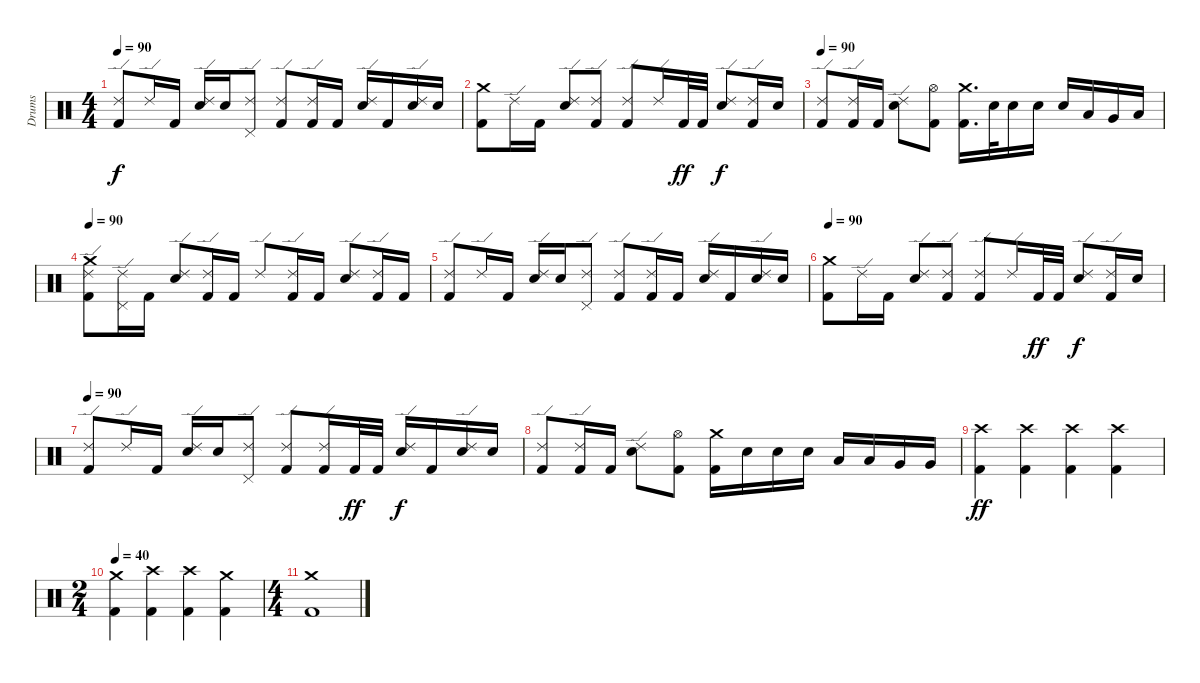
\track ("Drums" "Drums") {instrument percussion}
\staff {score}
\articulation defaults
\ts (4 4)
\tempo 90
\clef neutral
\ks c
("Kick (hit) 2" "Ride (edge) 2").8{dy f} "Ride (edge) 2".16 "Kick (hit) 2".16 ("Electric Snare (hit)" "Ride (edge) 2").16 "Electric Snare (hit)".16 ("Ride (edge) 2" "Pedal Hi-Hat (hit)").8 ("Kick (hit) 2" "Ride (edge) 2").8 ("Kick (hit) 2" "Ride (edge) 2").16 "Kick (hit) 2".16 ("Electric Snare (hit)" "Ride (edge) 2").16 "Kick (hit) 2".16 ("Electric Snare (hit)" "Ride (edge) 2").16 "Electric Snare (hit)".16 |
("Kick (hit) 2" "Crash medium (hit)").8 "Ride (edge) 2".16 "Kick (hit) 2".16 ("Electric Snare (hit)" "Ride (edge) 2").8 ("Kick (hit) 2" "Ride (edge) 2").8 ("Kick (hit) 2" "Ride (edge) 2").8 "Ride (edge) 2".16 "Kick (hit) 2".32{dy ff} "Kick (hit) 2".32 ("Electric Snare (hit)" "Ride (edge) 2").8{dy f} ("Kick (hit) 2" "Ride (edge) 2").16 "Electric Snare (hit)".16 |
\tempo 90
("Kick (hit) 2" "Ride (edge) 2").8 ("Kick (hit) 2" "Ride (edge) 2").16 "Kick (hit) 2".16 ("Electric Snare (hit)" "Ride (edge) 2").8 ("Hi-Hat (open)" "Kick (hit) 2").8 ("Crash medium (hit)" "Kick (hit) 2").16{d} "Electric Snare (hit)".32 "Electric Snare (hit)".16 "Electric Snare (hit)".16 "Electric Snare (hit)".16 "Low Tom (hit)".16 "Very Low Tom (hit)".16 "Low Floor Tom (hit)".16 |
\tempo 90
("Kick (hit) 2" "Crash medium (hit)" "Ride (edge) 2").8 ("Pedal Hi-Hat (hit)" "Ride (edge) 2").16 "Kick (hit) 2".16 ("Electric Snare (hit)" "Ride (edge) 2").8 ("Kick (hit) 2" "Ride (edge) 2").16 "Kick (hit) 2".16 "Ride (edge) 2".8 ("Kick (hit) 2" "Ride (edge) 2").16 "Kick (hit) 2".16 ("Electric Snare (hit)" "Ride (edge) 2").8 ("Kick (hit) 2" "Ride (edge) 2").16 "Kick (hit) 2".16 |
("Kick (hit) 2" "Ride (edge) 2").8 "Ride (edge) 2".16 "Kick (hit) 2".16 ("Electric Snare (hit)" "Ride (edge) 2").16 "Electric Snare (hit)".16 ("Ride (edge) 2" "Pedal Hi-Hat (hit)").8 ("Kick (hit) 2" "Ride (edge) 2").8 ("Kick (hit) 2" "Ride (edge) 2").16 "Kick (hit) 2".16 ("Electric Snare (hit)" "Ride (edge) 2").16 "Kick (hit) 2".16 ("Electric Snare (hit)" "Ride (edge) 2").16 "Electric Snare (hit)".16 |
\tempo 90
("Kick (hit) 2" "Crash medium (hit)").8 "Ride (edge) 2".16 "Kick (hit) 2".16 ("Electric Snare (hit)" "Ride (edge) 2").8 ("Kick (hit) 2" "Ride (edge) 2").8 ("Kick (hit) 2" "Ride (edge) 2").8 "Ride (edge) 2".16 "Kick (hit) 2".32{dy ff} "Kick (hit) 2".32 ("Electric Snare (hit)" "Ride (edge) 2").8{dy f} ("Kick (hit) 2" "Ride (edge) 2").16 "Electric Snare (hit)".16 |
\tempo 90
("Kick (hit) 2" "Ride (edge) 2").8 "Ride (edge) 2".16 "Kick (hit) 2".16 ("Electric Snare (hit)" "Ride (edge) 2").16 "Electric Snare (hit)".16 ("Ride (edge) 2" "Pedal Hi-Hat (hit)").8 ("Kick (hit) 2" "Ride (edge) 2").8 ("Kick (hit) 2" "Ride (edge) 2").16 "Kick (hit) 2".32{dy ff} "Kick (hit) 2".32 ("Electric Snare (hit)" "Ride (edge) 2").16{dy f} "Kick (hit) 2".16 ("Electric Snare (hit)" "Ride (edge) 2").16 "Electric Snare (hit)".16 |
("Kick (hit) 2" "Ride (edge) 2").8{volume 13} ("Kick (hit) 2" "Ride (edge) 2").16 "Kick (hit) 2".16 ("Electric Snare (hit)" "Ride (edge) 2").8 ("Hi-Hat (open)" "Kick (hit) 2").8 ("Crash medium (hit)" "Kick (hit) 2").16 "Electric Snare (hit)".16 "Electric Snare (hit)".16 "Electric Snare (hit)".16 "Low Tom (hit)".16 "Low Tom (hit)".16 "Very Low Tom (hit)".16 "Very Low Tom (hit)".16 |
("Crash high (hit)" "Kick (hit) 2").4{dy ff} ("Crash high (hit)" "Kick (hit) 2").4 ("Kick (hit) 2" "Crash high (hit)").4 ("Kick (hit) 2" "Crash high (hit)").4 |
\ts (2 4)
\tempo 40
("Crash medium (hit)" "Kick (hit) 2").4 ("Crash high (hit)" "Kick (hit) 2").4 ("Crash high (hit)" "Kick (hit) 2").4 ("Crash medium (hit)" "Kick (hit) 2").4 |
\ts (4 4)
("Crash medium (hit)" "Kick (hit) 2").1
